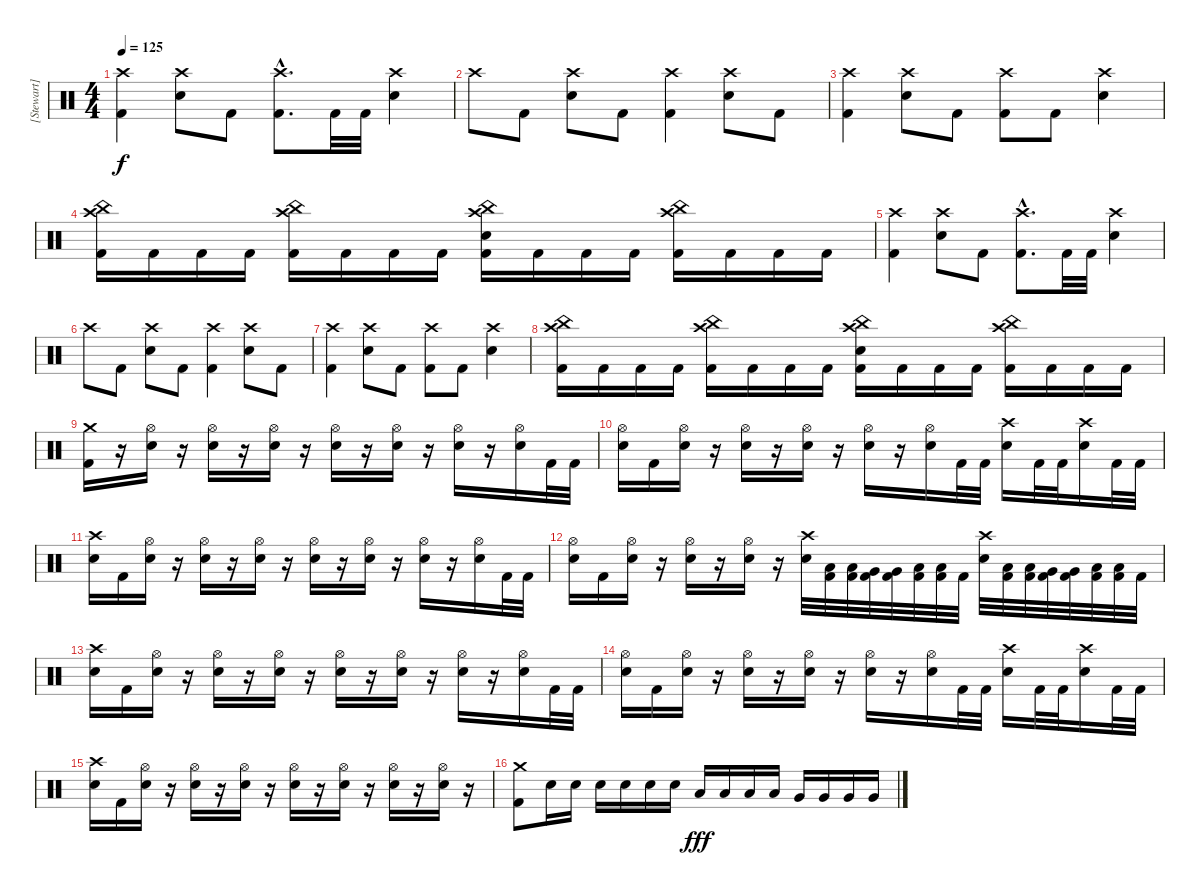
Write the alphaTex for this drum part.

\track ("[Stewart]" "[Stewart]") {instrument percussion}
\staff {score}
\articulation defaults
\ts (4 4)
\tempo 125
\clef neutral
\ks c
("Crash high (hit)" "Kick (hit) 2").4{dy f} ("Crash high (hit)" "Electric Snare (hit)").8 "Kick (hit) 2".8 ("Crash high (hit)"{hac} "Kick (hit) 2"{hac}).8{d} "Kick (hit) 2".32 "Kick (hit) 2".32 ("Crash high (hit)" "Electric Snare (hit)").4 |
"Crash high (hit)".8 "Kick (hit) 2".8 ("Crash high (hit)" "Electric Snare (hit)").8 "Kick (hit) 2".8 ("Crash high (hit)" "Kick (hit) 2").4 ("Crash high (hit)" "Electric Snare (hit)").8 "Kick (hit) 2".8 |
("Crash high (hit)" "Kick (hit) 2").4 ("Crash high (hit)" "Electric Snare (hit)").8 "Kick (hit) 2".8 ("Crash high (hit)" "Kick (hit) 2").8 "Kick (hit) 2".8 ("Crash high (hit)" "Electric Snare (hit)").4 |
("China (hit)" "Crash high (hit)" "Kick (hit) 2").16 "Kick (hit) 2".16 "Kick (hit) 2".16 "Kick (hit) 2".16 ("China (hit)" "Crash high (hit)" "Kick (hit) 2").16 "Kick (hit) 2".16 "Kick (hit) 2".16 "Kick (hit) 2".16 ("China (hit)" "Crash high (hit)" "Electric Snare (hit)" "Kick (hit) 2").16 "Kick (hit) 2".16 "Kick (hit) 2".16 "Kick (hit) 2".16 ("China (hit)" "Crash high (hit)" "Kick (hit) 2").16 "Kick (hit) 2".16 "Kick (hit) 2".16 "Kick (hit) 2".16 |
("Crash high (hit)" "Kick (hit) 2").4 ("Crash high (hit)" "Electric Snare (hit)").8 "Kick (hit) 2".8 ("Crash high (hit)"{hac} "Kick (hit) 2"{hac}).8{d} "Kick (hit) 2".32 "Kick (hit) 2".32 ("Crash high (hit)" "Electric Snare (hit)").4 |
"Crash high (hit)".8 "Kick (hit) 2".8 ("Crash high (hit)" "Electric Snare (hit)").8 "Kick (hit) 2".8 ("Crash high (hit)" "Kick (hit) 2").4 ("Crash high (hit)" "Electric Snare (hit)").8 "Kick (hit) 2".8 |
("Crash high (hit)" "Kick (hit) 2").4 ("Crash high (hit)" "Electric Snare (hit)").8 "Kick (hit) 2".8 ("Crash high (hit)" "Kick (hit) 2").8 "Kick (hit) 2".8 ("Crash high (hit)" "Electric Snare (hit)").4 |
("China (hit)" "Crash high (hit)" "Kick (hit) 2").16 "Kick (hit) 2".16 "Kick (hit) 2".16 "Kick (hit) 2".16 ("China (hit)" "Crash high (hit)" "Kick (hit) 2").16 "Kick (hit) 2".16 "Kick (hit) 2".16 "Kick (hit) 2".16 ("China (hit)" "Crash high (hit)" "Electric Snare (hit)" "Kick (hit) 2").16 "Kick (hit) 2".16 "Kick (hit) 2".16 "Kick (hit) 2".16 ("China (hit)" "Crash high (hit)" "Kick (hit) 2").16 "Kick (hit) 2".16 "Kick (hit) 2".16 "Kick (hit) 2".16 |
("Crash medium (hit)" "Kick (hit) 2").16 r.16 ("Hi-Hat (open)" "Electric Snare (hit)").16 r.16 ("Hi-Hat (open)" "Electric Snare (hit)").16 r.16 ("Hi-Hat (open)" "Electric Snare (hit)").16 r.16 ("Hi-Hat (open)" "Electric Snare (hit)").16 r.16 ("Hi-Hat (open)" "Electric Snare (hit)").16 r.16 ("Hi-Hat (open)" "Electric Snare (hit)").16 r.16 ("Hi-Hat (open)" "Electric Snare (hit)").16 "Kick (hit) 2".32 "Kick (hit) 2".32 |
("Hi-Hat (open)" "Electric Snare (hit)").16 "Kick (hit) 2".16 ("Hi-Hat (open)" "Electric Snare (hit)").16 r.16 ("Hi-Hat (open)" "Electric Snare (hit)").16 r.16 ("Hi-Hat (open)" "Electric Snare (hit)").16 r.16 ("Hi-Hat (open)" "Electric Snare (hit)").16 r.16 ("Hi-Hat (open)" "Electric Snare (hit)").16 "Kick (hit) 2".32 "Kick (hit) 2".32 ("Crash high (hit)" "Electric Snare (hit)").16 "Kick (hit) 2".32 "Kick (hit) 2".32 ("Crash high (hit)" "Electric Snare (hit)").16 "Kick (hit) 2".32 "Kick (hit) 2".32 |
("Crash high (hit)" "Electric Snare (hit)").16 "Kick (hit) 2".16 ("Hi-Hat (open)" "Electric Snare (hit)").16 r.16 ("Hi-Hat (open)" "Electric Snare (hit)").16 r.16 ("Hi-Hat (open)" "Electric Snare (hit)").16 r.16 ("Hi-Hat (open)" "Electric Snare (hit)").16 r.16 ("Hi-Hat (open)" "Electric Snare (hit)").16 r.16 ("Hi-Hat (open)" "Electric Snare (hit)").16 r.16 ("Hi-Hat (open)" "Electric Snare (hit)").16 "Kick (hit) 2".32 "Kick (hit) 2".32 |
("Hi-Hat (open)" "Electric Snare (hit)").16 "Kick (hit) 2".16 ("Hi-Hat (open)" "Electric Snare (hit)").16 r.16 ("Hi-Hat (open)" "Electric Snare (hit)").16 r.16 ("Hi-Hat (open)" "Electric Snare (hit)").16 r.16 ("Crash high (hit)" "Electric Snare (hit)").32 ("Low Tom (hit)" "Kick (hit) 2").32 ("Low Tom (hit)" "Kick (hit) 2").32 ("Very Low Tom (hit)" "Kick (hit) 2").32 ("Very Low Tom (hit)" "Kick (hit) 2").32 ("Low Tom (hit)" "Kick (hit) 2").32 ("Low Tom (hit)" "Kick (hit) 2").32 "Kick (hit) 2".32 ("Crash high (hit)" "Electric Snare (hit)").32 ("Low Tom (hit)" "Kick (hit) 2").32 ("Low Tom (hit)" "Kick (hit) 2").32 ("Very Low Tom (hit)" "Kick (hit) 2").32 ("Very Low Tom (hit)" "Kick (hit) 2").32 ("Low Tom (hit)" "Kick (hit) 2").32 ("Low Tom (hit)" "Kick (hit) 2").32 "Kick (hit) 2".32 |
("Crash high (hit)" "Electric Snare (hit)").16 "Kick (hit) 2".16 ("Hi-Hat (open)" "Electric Snare (hit)").16 r.16 ("Hi-Hat (open)" "Electric Snare (hit)").16 r.16 ("Hi-Hat (open)" "Electric Snare (hit)").16 r.16 ("Hi-Hat (open)" "Electric Snare (hit)").16 r.16 ("Hi-Hat (open)" "Electric Snare (hit)").16 r.16 ("Hi-Hat (open)" "Electric Snare (hit)").16 r.16 ("Hi-Hat (open)" "Electric Snare (hit)").16 "Kick (hit) 2".32 "Kick (hit) 2".32 |
("Hi-Hat (open)" "Electric Snare (hit)").16 "Kick (hit) 2".16 ("Hi-Hat (open)" "Electric Snare (hit)").16 r.16 ("Hi-Hat (open)" "Electric Snare (hit)").16 r.16 ("Hi-Hat (open)" "Electric Snare (hit)").16 r.16 ("Hi-Hat (open)" "Electric Snare (hit)").16 r.16 ("Hi-Hat (open)" "Electric Snare (hit)").16 "Kick (hit) 2".32 "Kick (hit) 2".32 ("Crash high (hit)" "Electric Snare (hit)").16 "Kick (hit) 2".32 "Kick (hit) 2".32 ("Crash high (hit)" "Electric Snare (hit)").16 "Kick (hit) 2".32 "Kick (hit) 2".32 |
("Crash high (hit)" "Electric Snare (hit)").16 "Kick (hit) 2".16 ("Hi-Hat (open)" "Electric Snare (hit)").16 r.16 ("Hi-Hat (open)" "Electric Snare (hit)").16 r.16 ("Hi-Hat (open)" "Electric Snare (hit)").16 r.16 ("Hi-Hat (open)" "Electric Snare (hit)").16 r.16 ("Hi-Hat (open)" "Electric Snare (hit)").16 r.16 ("Hi-Hat (open)" "Electric Snare (hit)").16 r.16 ("Hi-Hat (open)" "Electric Snare (hit)").16 r.16 |
("Crash medium (hit)" "Kick (hit) 2").8 "Electric Snare (hit)".16 "Electric Snare (hit)".16 "Electric Snare (hit)".16 "Electric Snare (hit)".16 "Electric Snare (hit)".16 "Electric Snare (hit)".16 "Low Tom (hit)".16{dy fff} "Low Tom (hit)".16 "Low Tom (hit)".16 "Low Tom (hit)".16 "Very Low Tom (hit)".16 "Very Low Tom (hit)".16 "Very Low Tom (hit)".16 "Very Low Tom (hit)".16
